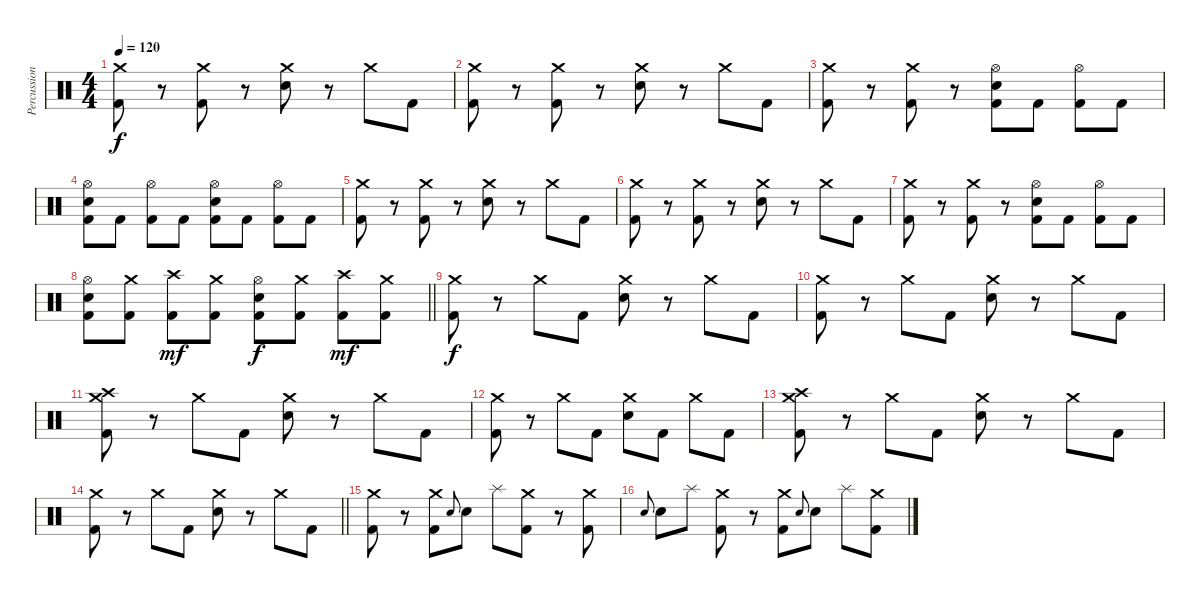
\track ("Percussion" "Percussion") {instrument percussion}
\staff {score}
\articulation defaults
\ts (4 4)
\section ("" "")
\tempo 120
\clef neutral
\ks c
("Crash medium (hit)" "Kick (hit) 2").8{dy f} r.8 ("Crash medium (hit)" "Kick (hit) 2").8 r.8 ("Crash medium (hit)" "Snare (hit) 2").8 r.8 "Crash medium (hit)".8 "Kick (hit) 2".8 |
("Crash medium (hit)" "Kick (hit) 2").8 r.8 ("Crash medium (hit)" "Kick (hit) 2").8 r.8 ("Crash medium (hit)" "Snare (hit) 2").8 r.8 "Crash medium (hit)".8 "Kick (hit) 2".8 |
("Crash medium (hit)" "Kick (hit) 2").8 r.8 ("Crash medium (hit)" "Kick (hit) 2").8 r.8 ("Hi-Hat (open)" "Snare (hit) 2" "Kick (hit) 2").8 "Kick (hit) 2".8 ("Hi-Hat (open)" "Kick (hit) 2").8 "Kick (hit) 2".8 |
("Hi-Hat (open)" "Snare (hit) 2" "Kick (hit) 2").8 "Kick (hit) 2".8 ("Hi-Hat (open)" "Kick (hit) 2").8 "Kick (hit) 2".8 ("Hi-Hat (open)" "Snare (hit) 2" "Kick (hit) 2").8 "Kick (hit) 2".8 ("Hi-Hat (open)" "Kick (hit) 2").8 "Kick (hit) 2".8 |
("Crash medium (hit)" "Kick (hit) 2").8 r.8 ("Crash medium (hit)" "Kick (hit) 2").8 r.8 ("Crash medium (hit)" "Snare (hit) 2").8 r.8 "Crash medium (hit)".8 "Kick (hit) 2".8 |
("Crash medium (hit)" "Kick (hit) 2").8 r.8 ("Crash medium (hit)" "Kick (hit) 2").8 r.8 ("Crash medium (hit)" "Snare (hit) 2").8 r.8 "Crash medium (hit)".8 "Kick (hit) 2".8 |
("Crash medium (hit)" "Kick (hit) 2").8 r.8 ("Crash medium (hit)" "Kick (hit) 2").8 r.8 ("Hi-Hat (open)" "Snare (hit) 2" "Kick (hit) 2").8 "Kick (hit) 2".8 ("Hi-Hat (open)" "Kick (hit) 2").8 "Kick (hit) 2".8 |
\barLineRight lightlight
("Hi-Hat (open)" "Snare (hit) 2" "Kick (hit) 2").8 ("Crash medium (hit)" "Kick (hit) 2").8 ("Crash high (hit)" "Kick (hit) 2").8{dy mf} ("Crash medium (hit)" "Kick (hit) 2").8 ("Hi-Hat (open)" "Snare (hit) 2" "Kick (hit) 2").8{dy f} ("Crash medium (hit)" "Kick (hit) 2").8 ("Crash high (hit)" "Kick (hit) 2").8{dy mf} ("Crash medium (hit)" "Kick (hit) 2").8 |
\section ("" "")
("Crash medium (hit)" "Kick (hit) 2").8{dy f} r.8 "Crash medium (hit)".8 "Kick (hit) 2".8 ("Crash medium (hit)" "Snare (hit) 2").8 r.8 "Crash medium (hit)".8 "Kick (hit) 2".8 |
("Crash medium (hit)" "Kick (hit) 2").8 r.8 "Crash medium (hit)".8 "Kick (hit) 2".8 ("Crash medium (hit)" "Snare (hit) 2").8 r.8 "Crash medium (hit)".8 "Kick (hit) 2".8 |
("Crash medium (hit)" "Crash high (hit)" "Kick (hit) 2").8 r.8 "Crash medium (hit)".8 "Kick (hit) 2".8 ("Crash medium (hit)" "Snare (hit) 2").8 r.8 "Crash medium (hit)".8 "Kick (hit) 2".8 |
("Crash medium (hit)" "Kick (hit) 2").8 r.8 "Crash medium (hit)".8 "Kick (hit) 2".8 ("Crash medium (hit)" "Snare (hit) 2").8 "Kick (hit) 2".8 "Crash medium (hit)".8 "Kick (hit) 2".8 |
("Crash medium (hit)" "Crash high (hit)" "Kick (hit) 2").8 r.8 "Crash medium (hit)".8 "Kick (hit) 2".8 ("Crash medium (hit)" "Snare (hit) 2").8 r.8 "Crash medium (hit)".8 "Kick (hit) 2".8 |
\barLineRight lightlight
("Crash medium (hit)" "Kick (hit) 2").8 r.8 "Crash medium (hit)".8 "Kick (hit) 2".8 ("Crash medium (hit)" "Snare (hit) 2").8 r.8 "Crash medium (hit)".8 "Kick (hit) 2".8 |
\section ("" "")
("Crash medium (hit)" "Kick (hit) 2").8 r.8 ("Crash medium (hit)" "Kick (hit) 2").8 "Snare (hit) 2".8{gr onbeat} "Snare (hit) 2".8 "Splash (hit)".8 ("Crash medium (hit)" "Kick (hit) 2").8 r.8 ("Crash medium (hit)" "Kick (hit) 2").8 |
"Snare (hit) 2".8{gr onbeat} "Snare (hit) 2".8 "Splash (hit)".8 ("Crash medium (hit)" "Kick (hit) 2").8 r.8 ("Crash medium (hit)" "Kick (hit) 2").8 "Snare (hit) 2".8{gr onbeat} "Snare (hit) 2".8 "Splash (hit)".8 ("Crash medium (hit)" "Kick (hit) 2").8
